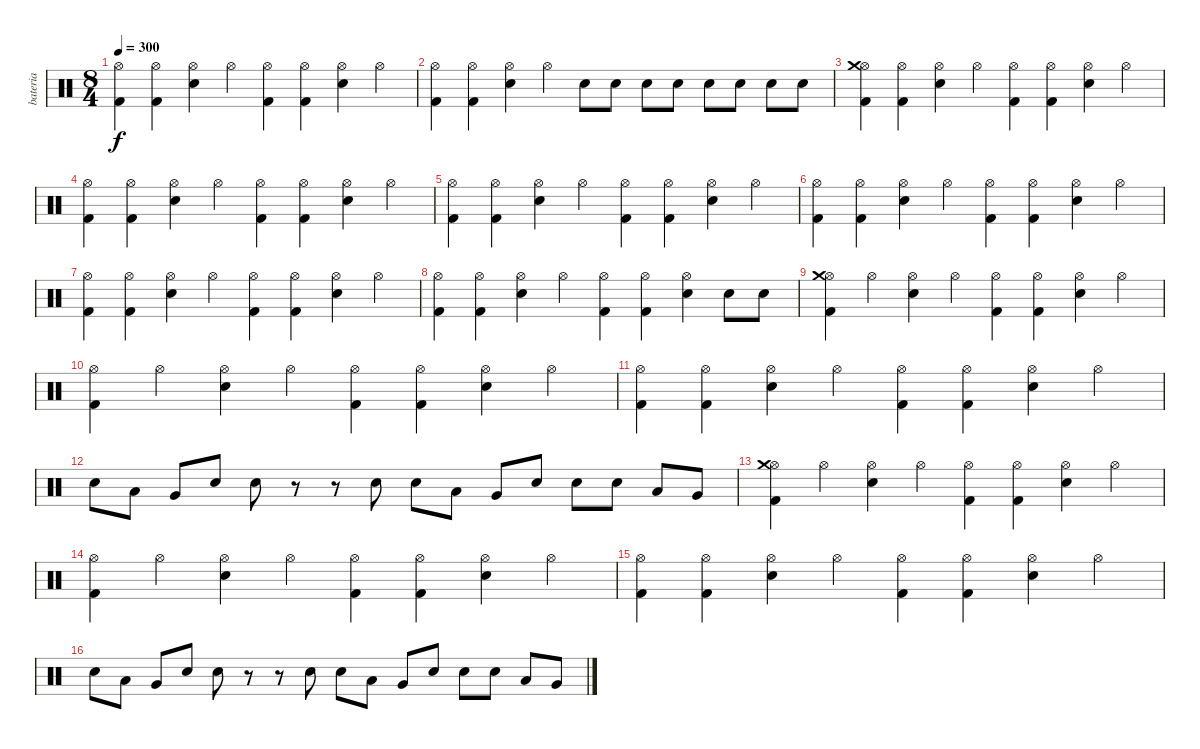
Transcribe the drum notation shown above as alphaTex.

\track ("bateria" "bateria") {instrument percussion}
\staff {score}
\articulation defaults
\ts (8 4)
\tempo 300
\clef neutral
\ks c
("Hi-Hat (open)" "Kick (hit) 2").4{dy f} ("Hi-Hat (open)" "Kick (hit) 2").4 ("Hi-Hat (open)" "Electric Snare (hit)").4 "Hi-Hat (open)".4 ("Hi-Hat (open)" "Kick (hit) 2").4 ("Hi-Hat (open)" "Kick (hit) 2").4 ("Hi-Hat (open)" "Electric Snare (hit)").4 "Hi-Hat (open)".4 |
("Hi-Hat (open)" "Kick (hit) 2").4 ("Hi-Hat (open)" "Kick (hit) 2").4 ("Hi-Hat (open)" "Electric Snare (hit)").4 "Hi-Hat (open)".4 "Electric Snare (hit)".8 "Electric Snare (hit)".8 "Electric Snare (hit)".8 "Electric Snare (hit)".8 "Electric Snare (hit)".8 "Electric Snare (hit)".8 "Electric Snare (hit)".8 "Electric Snare (hit)".8 |
("Hi-Hat (open)" "Kick (hit) 2" "Crash medium (hit)").4 ("Hi-Hat (open)" "Kick (hit) 2").4 ("Hi-Hat (open)" "Electric Snare (hit)").4 "Hi-Hat (open)".4 ("Hi-Hat (open)" "Kick (hit) 2").4 ("Hi-Hat (open)" "Kick (hit) 2").4 ("Hi-Hat (open)" "Electric Snare (hit)").4 "Hi-Hat (open)".4 |
("Hi-Hat (open)" "Kick (hit) 2").4 ("Hi-Hat (open)" "Kick (hit) 2").4 ("Hi-Hat (open)" "Electric Snare (hit)").4 "Hi-Hat (open)".4 ("Hi-Hat (open)" "Kick (hit) 2").4 ("Hi-Hat (open)" "Kick (hit) 2").4 ("Hi-Hat (open)" "Electric Snare (hit)").4 "Hi-Hat (open)".4 |
("Hi-Hat (open)" "Kick (hit) 2").4 ("Hi-Hat (open)" "Kick (hit) 2").4 ("Hi-Hat (open)" "Electric Snare (hit)").4 "Hi-Hat (open)".4 ("Hi-Hat (open)" "Kick (hit) 2").4 ("Hi-Hat (open)" "Kick (hit) 2").4 ("Hi-Hat (open)" "Electric Snare (hit)").4 "Hi-Hat (open)".4 |
("Hi-Hat (open)" "Kick (hit) 2").4 ("Hi-Hat (open)" "Kick (hit) 2").4 ("Hi-Hat (open)" "Electric Snare (hit)").4 "Hi-Hat (open)".4 ("Hi-Hat (open)" "Kick (hit) 2").4 ("Hi-Hat (open)" "Kick (hit) 2").4 ("Hi-Hat (open)" "Electric Snare (hit)").4 "Hi-Hat (open)".4 |
("Hi-Hat (open)" "Kick (hit) 2").4 ("Hi-Hat (open)" "Kick (hit) 2").4 ("Hi-Hat (open)" "Electric Snare (hit)").4 "Hi-Hat (open)".4 ("Hi-Hat (open)" "Kick (hit) 2").4 ("Hi-Hat (open)" "Kick (hit) 2").4 ("Hi-Hat (open)" "Electric Snare (hit)").4 "Hi-Hat (open)".4 |
("Hi-Hat (open)" "Kick (hit) 2").4 ("Hi-Hat (open)" "Kick (hit) 2").4 ("Hi-Hat (open)" "Electric Snare (hit)").4 "Hi-Hat (open)".4 ("Hi-Hat (open)" "Kick (hit) 2").4 ("Hi-Hat (open)" "Kick (hit) 2").4 ("Hi-Hat (open)" "Electric Snare (hit)").4 "Electric Snare (hit)".8 "Electric Snare (hit)".8 |
("Hi-Hat (open)" "Kick (hit) 2" "Crash medium (hit)").4 "Hi-Hat (open)".4 ("Hi-Hat (open)" "Electric Snare (hit)").4 "Hi-Hat (open)".4 ("Hi-Hat (open)" "Kick (hit) 2").4 ("Hi-Hat (open)" "Kick (hit) 2").4 ("Hi-Hat (open)" "Electric Snare (hit)").4 "Hi-Hat (open)".4 |
("Hi-Hat (open)" "Kick (hit) 2").4 "Hi-Hat (open)".4 ("Hi-Hat (open)" "Electric Snare (hit)").4 "Hi-Hat (open)".4 ("Hi-Hat (open)" "Kick (hit) 2").4 ("Hi-Hat (open)" "Kick (hit) 2").4 ("Hi-Hat (open)" "Electric Snare (hit)").4 "Hi-Hat (open)".4 |
("Hi-Hat (open)" "Kick (hit) 2").4 ("Hi-Hat (open)" "Kick (hit) 2").4 ("Hi-Hat (open)" "Electric Snare (hit)").4 "Hi-Hat (open)".4 ("Hi-Hat (open)" "Kick (hit) 2").4 ("Hi-Hat (open)" "Kick (hit) 2").4 ("Hi-Hat (open)" "Electric Snare (hit)").4 "Hi-Hat (open)".4 |
"Electric Snare (hit)".8 "Low Tom (hit)".8 "Very Low Tom (hit)".8 "Electric Snare (hit)".8 "Electric Snare (hit)".8 r.8 r.8 "Electric Snare (hit)".8 "Electric Snare (hit)".8 "Low Tom (hit)".8 "Very Low Tom (hit)".8 "Electric Snare (hit)".8 "Electric Snare (hit)".8 "Electric Snare (hit)".8 "Low Tom (hit)".8 "Very Low Tom (hit)".8 |
("Hi-Hat (open)" "Kick (hit) 2" "Crash medium (hit)").4 "Hi-Hat (open)".4 ("Hi-Hat (open)" "Electric Snare (hit)").4 "Hi-Hat (open)".4 ("Hi-Hat (open)" "Kick (hit) 2").4 ("Hi-Hat (open)" "Kick (hit) 2").4 ("Hi-Hat (open)" "Electric Snare (hit)").4 "Hi-Hat (open)".4 |
("Hi-Hat (open)" "Kick (hit) 2").4 "Hi-Hat (open)".4 ("Hi-Hat (open)" "Electric Snare (hit)").4 "Hi-Hat (open)".4 ("Hi-Hat (open)" "Kick (hit) 2").4 ("Hi-Hat (open)" "Kick (hit) 2").4 ("Hi-Hat (open)" "Electric Snare (hit)").4 "Hi-Hat (open)".4 |
("Hi-Hat (open)" "Kick (hit) 2").4 ("Hi-Hat (open)" "Kick (hit) 2").4 ("Hi-Hat (open)" "Electric Snare (hit)").4 "Hi-Hat (open)".4 ("Hi-Hat (open)" "Kick (hit) 2").4 ("Hi-Hat (open)" "Kick (hit) 2").4 ("Hi-Hat (open)" "Electric Snare (hit)").4 "Hi-Hat (open)".4 |
"Electric Snare (hit)".8 "Low Tom (hit)".8 "Very Low Tom (hit)".8 "Electric Snare (hit)".8 "Electric Snare (hit)".8 r.8 r.8 "Electric Snare (hit)".8 "Electric Snare (hit)".8 "Low Tom (hit)".8 "Very Low Tom (hit)".8 "Electric Snare (hit)".8 "Electric Snare (hit)".8 "Electric Snare (hit)".8 "Low Tom (hit)".8 "Very Low Tom (hit)".8
